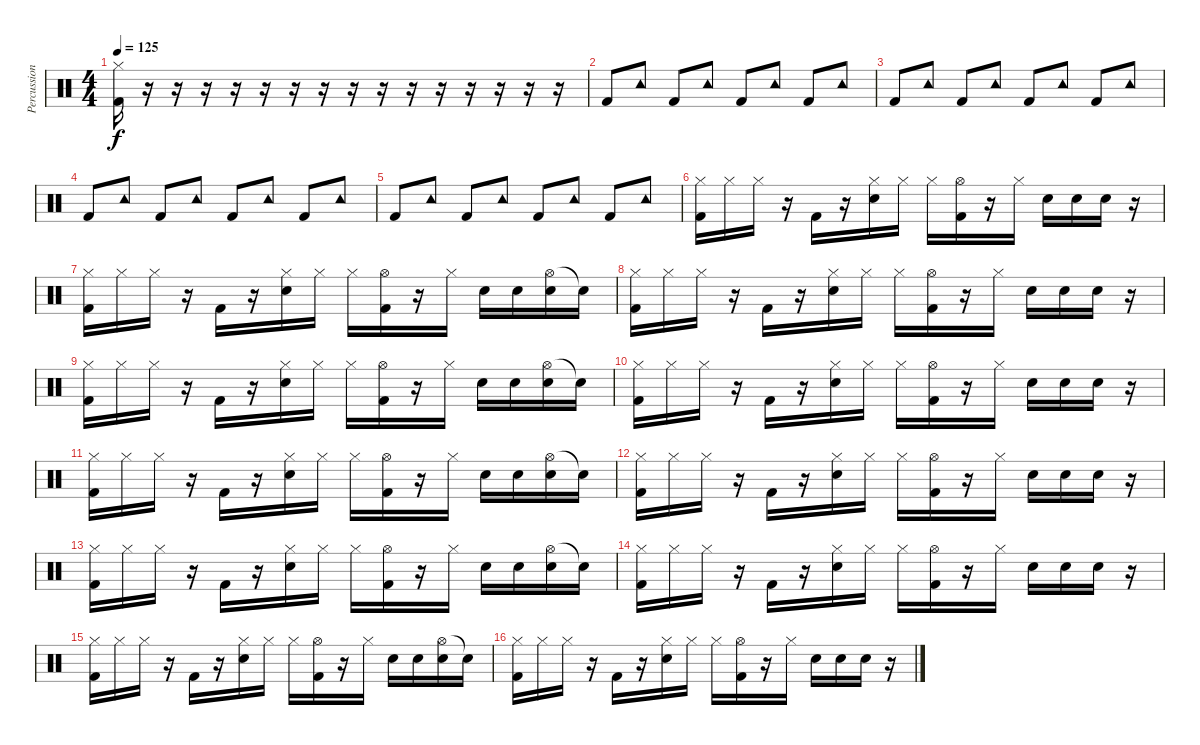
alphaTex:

\track ("Percussion" "Percussion") {instrument percussion}
\staff {score}
\articulation defaults
\ts (4 4)
\tempo 125
\clef neutral
\ks c
("Hi-Hat (closed)" "Kick (hit) 2").16{dy f} r.16 r.16 r.16 r.16 r.16 r.16 r.16 r.16 r.16 r.16 r.16 r.16 r.16 r.16 r.16 |
"Kick (hit) 2".8 "Tambourine (hit)".8 "Kick (hit) 2".8 "Tambourine (hit)".8 "Kick (hit) 2".8 "Tambourine (hit)".8 "Kick (hit) 2".8 "Tambourine (hit)".8 |
"Kick (hit) 2".8 "Tambourine (hit)".8 "Kick (hit) 2".8 "Tambourine (hit)".8 "Kick (hit) 2".8 "Tambourine (hit)".8 "Kick (hit) 2".8 "Tambourine (hit)".8 |
"Kick (hit) 2".8 "Tambourine (hit)".8 "Kick (hit) 2".8 "Tambourine (hit)".8 "Kick (hit) 2".8 "Tambourine (hit)".8 "Kick (hit) 2".8 "Tambourine (hit)".8 |
"Kick (hit) 2".8 "Tambourine (hit)".8 "Kick (hit) 2".8 "Tambourine (hit)".8 "Kick (hit) 2".8 "Tambourine (hit)".8 "Kick (hit) 2".8 "Tambourine (hit)".8 |
("Hi-Hat (closed)" "Kick (hit) 2").16 "Hi-Hat (closed)".16 "Hi-Hat (closed)".16 r.16 "Kick (hit) 2".16 r.16 ("Hi-Hat (closed)" "Electric Snare (hit)").16 "Hi-Hat (closed)".16 "Hi-Hat (closed)".16 ("Hi-Hat (open)" "Kick (hit) 2").16 r.16 "Hi-Hat (closed)".16 "Electric Snare (hit)".16 "Electric Snare (hit)".16 "Electric Snare (hit)".16 r.16 |
("Hi-Hat (closed)" "Kick (hit) 2").16 "Hi-Hat (closed)".16 "Hi-Hat (closed)".16 r.16 "Kick (hit) 2".16 r.16 ("Hi-Hat (closed)" "Electric Snare (hit)").16 "Hi-Hat (closed)".16 "Hi-Hat (closed)".16 ("Hi-Hat (open)" "Kick (hit) 2").16 r.16 "Hi-Hat (closed)".16 "Electric Snare (hit)".16 "Electric Snare (hit)".16 ("Hi-Hat (open)" "Electric Snare (hit)").16 "Snare (hit)"{t}.16 |
("Hi-Hat (closed)" "Kick (hit) 2").16 "Hi-Hat (closed)".16 "Hi-Hat (closed)".16 r.16 "Kick (hit) 2".16 r.16 ("Hi-Hat (closed)" "Electric Snare (hit)").16 "Hi-Hat (closed)".16 "Hi-Hat (closed)".16 ("Hi-Hat (open)" "Kick (hit) 2").16 r.16 "Hi-Hat (closed)".16 "Electric Snare (hit)".16 "Electric Snare (hit)".16 "Electric Snare (hit)".16 r.16 |
("Hi-Hat (closed)" "Kick (hit) 2").16 "Hi-Hat (closed)".16 "Hi-Hat (closed)".16 r.16 "Kick (hit) 2".16 r.16 ("Hi-Hat (closed)" "Electric Snare (hit)").16 "Hi-Hat (closed)".16 "Hi-Hat (closed)".16 ("Hi-Hat (open)" "Kick (hit) 2").16 r.16 "Hi-Hat (closed)".16 "Electric Snare (hit)".16 "Electric Snare (hit)".16 ("Hi-Hat (open)" "Electric Snare (hit)").16 "Snare (hit)"{t}.16 |
("Hi-Hat (closed)" "Kick (hit) 2").16 "Hi-Hat (closed)".16 "Hi-Hat (closed)".16 r.16 "Kick (hit) 2".16 r.16 ("Hi-Hat (closed)" "Electric Snare (hit)").16 "Hi-Hat (closed)".16 "Hi-Hat (closed)".16 ("Hi-Hat (open)" "Kick (hit) 2").16 r.16 "Hi-Hat (closed)".16 "Electric Snare (hit)".16 "Electric Snare (hit)".16 "Electric Snare (hit)".16 r.16 |
("Hi-Hat (closed)" "Kick (hit) 2").16 "Hi-Hat (closed)".16 "Hi-Hat (closed)".16 r.16 "Kick (hit) 2".16 r.16 ("Hi-Hat (closed)" "Electric Snare (hit)").16 "Hi-Hat (closed)".16 "Hi-Hat (closed)".16 ("Hi-Hat (open)" "Kick (hit) 2").16 r.16 "Hi-Hat (closed)".16 "Electric Snare (hit)".16 "Electric Snare (hit)".16 ("Hi-Hat (open)" "Electric Snare (hit)").16 "Snare (hit)"{t}.16 |
("Hi-Hat (closed)" "Kick (hit) 2").16 "Hi-Hat (closed)".16 "Hi-Hat (closed)".16 r.16 "Kick (hit) 2".16 r.16 ("Hi-Hat (closed)" "Electric Snare (hit)").16 "Hi-Hat (closed)".16 "Hi-Hat (closed)".16 ("Hi-Hat (open)" "Kick (hit) 2").16 r.16 "Hi-Hat (closed)".16 "Electric Snare (hit)".16 "Electric Snare (hit)".16 "Electric Snare (hit)".16 r.16 |
("Hi-Hat (closed)" "Kick (hit) 2").16 "Hi-Hat (closed)".16 "Hi-Hat (closed)".16 r.16 "Kick (hit) 2".16 r.16 ("Hi-Hat (closed)" "Electric Snare (hit)").16 "Hi-Hat (closed)".16 "Hi-Hat (closed)".16 ("Hi-Hat (open)" "Kick (hit) 2").16 r.16 "Hi-Hat (closed)".16 "Electric Snare (hit)".16 "Electric Snare (hit)".16 ("Hi-Hat (open)" "Electric Snare (hit)").16 "Snare (hit)"{t}.16 |
("Hi-Hat (closed)" "Kick (hit) 2").16 "Hi-Hat (closed)".16 "Hi-Hat (closed)".16 r.16 "Kick (hit) 2".16 r.16 ("Hi-Hat (closed)" "Electric Snare (hit)").16 "Hi-Hat (closed)".16 "Hi-Hat (closed)".16 ("Hi-Hat (open)" "Kick (hit) 2").16 r.16 "Hi-Hat (closed)".16 "Electric Snare (hit)".16 "Electric Snare (hit)".16 "Electric Snare (hit)".16 r.16 |
("Hi-Hat (closed)" "Kick (hit) 2").16 "Hi-Hat (closed)".16 "Hi-Hat (closed)".16 r.16 "Kick (hit) 2".16 r.16 ("Hi-Hat (closed)" "Electric Snare (hit)").16 "Hi-Hat (closed)".16 "Hi-Hat (closed)".16 ("Hi-Hat (open)" "Kick (hit) 2").16 r.16 "Hi-Hat (closed)".16 "Electric Snare (hit)".16 "Electric Snare (hit)".16 ("Hi-Hat (open)" "Electric Snare (hit)").16 "Snare (hit)"{t}.16 |
("Hi-Hat (closed)" "Kick (hit) 2").16 "Hi-Hat (closed)".16 "Hi-Hat (closed)".16 r.16 "Kick (hit) 2".16 r.16 ("Hi-Hat (closed)" "Electric Snare (hit)").16 "Hi-Hat (closed)".16 "Hi-Hat (closed)".16 ("Hi-Hat (open)" "Kick (hit) 2").16 r.16 "Hi-Hat (closed)".16 "Electric Snare (hit)".16 "Electric Snare (hit)".16 "Electric Snare (hit)".16 r.16
